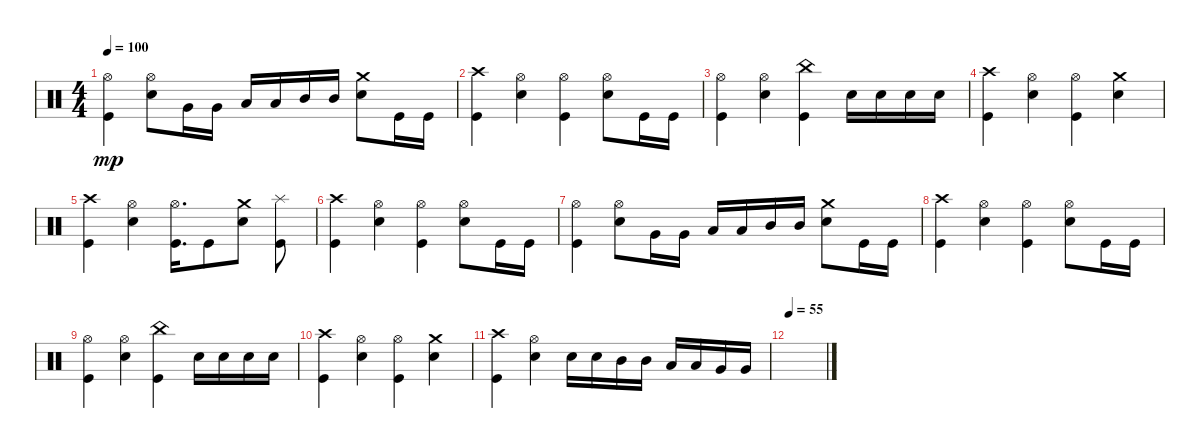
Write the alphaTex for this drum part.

\track "" {instrument percussion}
\staff {score}
\articulation defaults
\ts (4 4)
\tempo 100
\clef neutral
\ks c
("Kick (hit)" "Hi-Hat (open)").4{dy mp} ("Hi-Hat (open)" "Snare (hit) 2").8 "Very Low Tom (hit)".16 "Very Low Tom (hit)".16 "Low Tom (hit)".16 "Low Tom (hit)".16 "Mid Tom (hit)".16 "Mid Tom (hit)".16 ("Crash medium (hit)" "Snare (hit) 2").8 "Kick (hit)".16 "Kick (hit)".16 |
("Crash high (hit)" "Kick (hit)").4 ("Hi-Hat (open)" "Snare (hit) 2").4 ("Hi-Hat (open)" "Kick (hit)").4 ("Hi-Hat (open)" "Snare (hit) 2").8 "Kick (hit)".16 "Kick (hit)".16 |
("Kick (hit)" "Hi-Hat (open)").4 ("Hi-Hat (open)" "Snare (hit) 2").4 ("Kick (hit)" "China (hit)").4 "Snare (hit) 2".16 "Snare (hit) 2".16 "Snare (hit) 2".16 "Snare (hit) 2".16 |
("Crash high (hit)" "Kick (hit)").4 ("Snare (hit) 2" "Hi-Hat (open)").4 ("Kick (hit)" "Hi-Hat (open)").4 ("Snare (hit) 2" "Crash medium (hit)").4 |
("Crash high (hit)" "Kick (hit)").4 ("Snare (hit) 2" "Hi-Hat (open)").4 ("Kick (hit)" "Hi-Hat (open)").16{d} "Kick (hit)".8 ("Snare (hit) 2" "Crash medium (hit)").8 ("Splash (hit)" "Kick (hit)").8 |
("Crash high (hit)" "Kick (hit)").4 ("Hi-Hat (open)" "Snare (hit) 2").4 ("Hi-Hat (open)" "Kick (hit)").4 ("Hi-Hat (open)" "Snare (hit) 2").8 "Kick (hit)".16 "Kick (hit)".16 |
("Kick (hit)" "Hi-Hat (open)").4 ("Hi-Hat (open)" "Snare (hit) 2").8 "Very Low Tom (hit)".16 "Very Low Tom (hit)".16 "Low Tom (hit)".16 "Low Tom (hit)".16 "Mid Tom (hit)".16 "Mid Tom (hit)".16 ("Crash medium (hit)" "Snare (hit) 2").8 "Kick (hit)".16 "Kick (hit)".16 |
("Crash high (hit)" "Kick (hit)").4 ("Hi-Hat (open)" "Snare (hit) 2").4 ("Hi-Hat (open)" "Kick (hit)").4 ("Hi-Hat (open)" "Snare (hit) 2").8 "Kick (hit)".16 "Kick (hit)".16 |
("Kick (hit)" "Hi-Hat (open)").4 ("Hi-Hat (open)" "Snare (hit) 2").4 ("Kick (hit)" "China (hit)").4 "Snare (hit) 2".16 "Snare (hit) 2".16 "Snare (hit) 2".16 "Snare (hit) 2".16 |
("Crash high (hit)" "Kick (hit)").4 ("Snare (hit) 2" "Hi-Hat (open)").4 ("Kick (hit)" "Hi-Hat (open)").4 ("Snare (hit) 2" "Crash medium (hit)").4 |
("Crash high (hit)" "Kick (hit)").4 ("Snare (hit) 2" "Hi-Hat (open)").4 "Snare (hit) 2".16 "Snare (hit) 2".16 "Mid Tom (hit)".16 "Mid Tom (hit)".16 "Low Tom (hit)".16 "Low Tom (hit)".16 "Very Low Tom (hit)".16 "Very Low Tom (hit)".16 |
\tempo 55
